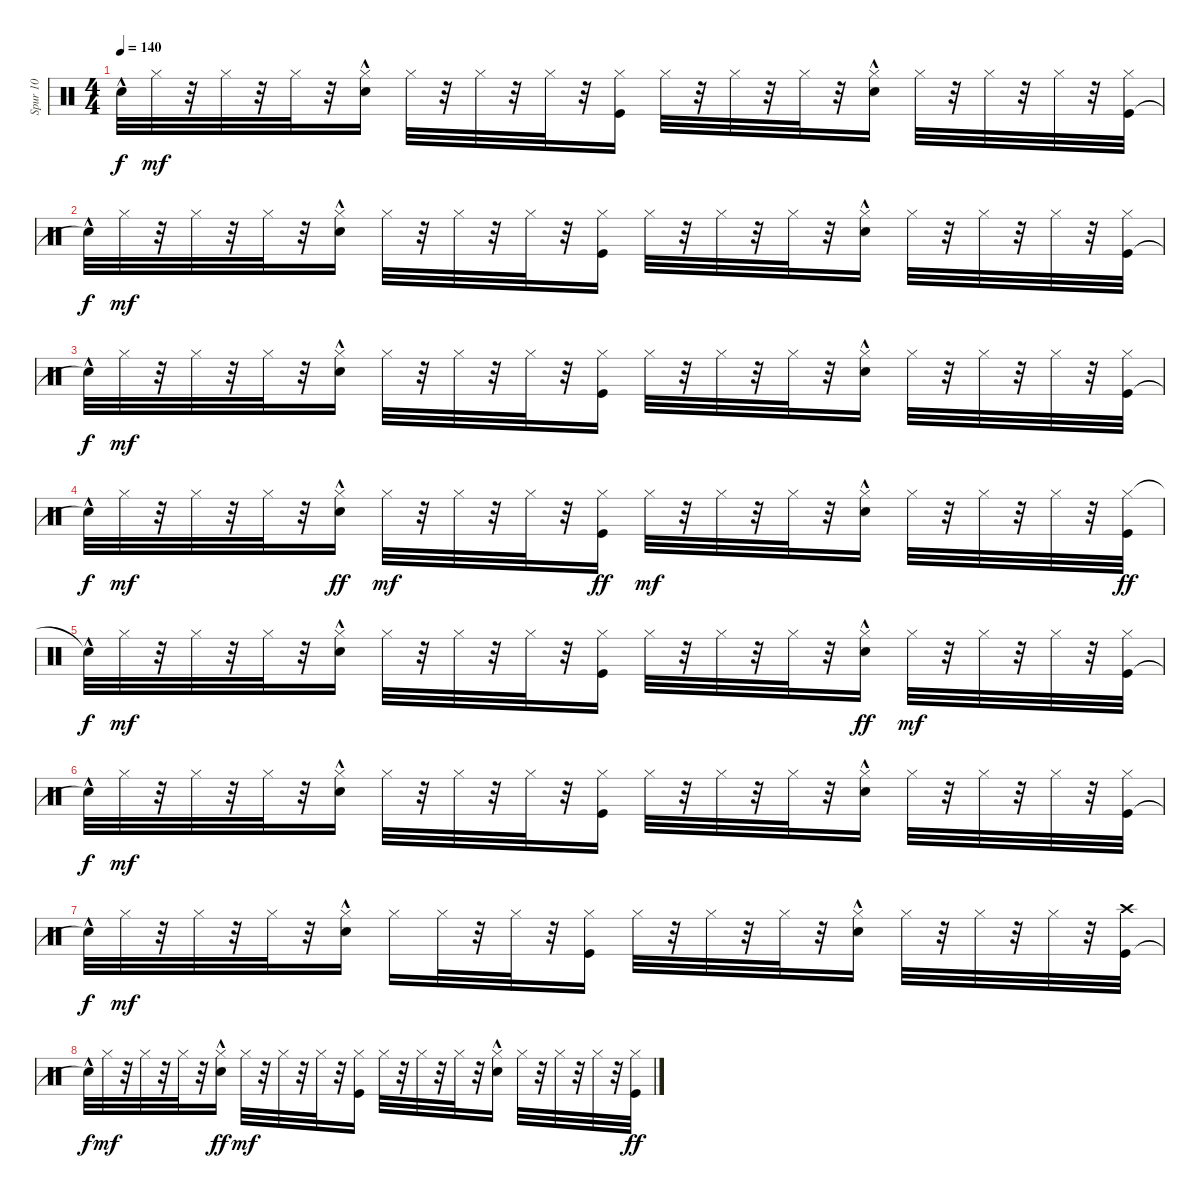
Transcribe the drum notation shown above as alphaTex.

\track ("Spur 10" "Spur 10") {instrument percussion}
\staff {score}
\articulation defaults
\ts (4 4)
\tempo 140
\clef neutral
\ks c "Snare (hit)"{hac t}.32{dy f} "Hi-Hat (closed)".32{dy mf}
r.32 "Hi-Hat (closed)".32 r.32 "Hi-Hat (closed)".32 r.32 ("Snare (hit) 2"{hac} "Hi-Hat (closed)").16 "Hi-Hat (closed)".32 r.32 "Hi-Hat (closed)".32 r.32 "Hi-Hat (closed)".32 r.32 ("Kick (hit)" "Hi-Hat (closed)").16 "Hi-Hat (closed)".32 r.32 "Hi-Hat (closed)".32 r.32 "Hi-Hat (closed)".32 r.32 ("Snare (hit) 2"{hac} "Hi-Hat (closed)").16 "Hi-Hat (closed)".32 r.32 "Hi-Hat (closed)".32 r.32 "Hi-Hat (closed)".32 r.32 ("Kick (hit)" "Hi-Hat (closed)").32 |
"Snare (hit)"{hac t}.32{dy f} "Hi-Hat (closed)".32{dy mf} r.32 "Hi-Hat (closed)".32 r.32 "Hi-Hat (closed)".32 r.32 ("Snare (hit) 2"{hac} "Hi-Hat (closed)").16 "Hi-Hat (closed)".32 r.32 "Hi-Hat (closed)".32 r.32 "Hi-Hat (closed)".32 r.32 ("Kick (hit)" "Hi-Hat (closed)").16 "Hi-Hat (closed)".32 r.32 "Hi-Hat (closed)".32 r.32 "Hi-Hat (closed)".32 r.32 ("Snare (hit) 2"{hac} "Hi-Hat (closed)").16 "Hi-Hat (closed)".32 r.32 "Hi-Hat (closed)".32 r.32 "Hi-Hat (closed)".32 r.32 ("Kick (hit)" "Hi-Hat (closed)").32 |
"Snare (hit)"{hac t}.32{dy f} "Hi-Hat (closed)".32{dy mf} r.32 "Hi-Hat (closed)".32 r.32 "Hi-Hat (closed)".32 r.32 ("Snare (hit) 2"{hac} "Hi-Hat (closed)").16 "Hi-Hat (closed)".32 r.32 "Hi-Hat (closed)".32 r.32 "Hi-Hat (closed)".32 r.32 ("Kick (hit)" "Hi-Hat (closed)").16 "Hi-Hat (closed)".32 r.32 "Hi-Hat (closed)".32 r.32 "Hi-Hat (closed)".32 r.32 ("Snare (hit) 2"{hac} "Hi-Hat (closed)").16 "Hi-Hat (closed)".32 r.32 "Hi-Hat (closed)".32 r.32 "Hi-Hat (closed)".32 r.32 ("Kick (hit)" "Hi-Hat (closed)").32 |
"Snare (hit)"{hac t}.32{dy f} "Hi-Hat (closed)".32{dy mf} r.32 "Hi-Hat (closed)".32 r.32 "Hi-Hat (closed)".32 r.32 ("Hi-Hat (closed)" "Snare (hit) 2"{hac}).16{dy ff} "Hi-Hat (closed)".32{dy mf} r.32 "Hi-Hat (closed)".32 r.32 "Hi-Hat (closed)".32 r.32 ("Hi-Hat (closed)" "Kick (hit)").16{dy ff} "Hi-Hat (closed)".32{dy mf} r.32 "Hi-Hat (closed)".32 r.32 "Hi-Hat (closed)".32 r.32 ("Snare (hit) 2"{hac} "Hi-Hat (closed)").16 "Hi-Hat (closed)".32 r.32 "Hi-Hat (closed)".32 r.32 "Hi-Hat (closed)".32 r.32 ("Hi-Hat (closed)" "Kick (hit)").32{dy ff} |
"Snare (hit)"{hac t}.32{dy f} "Hi-Hat (closed)".32{dy mf} r.32 "Hi-Hat (closed)".32 r.32 "Hi-Hat (closed)".32 r.32 ("Snare (hit) 2"{hac} "Hi-Hat (closed)").16 "Hi-Hat (closed)".32 r.32 "Hi-Hat (closed)".32 r.32 "Hi-Hat (closed)".32 r.32 ("Kick (hit)" "Hi-Hat (closed)").16 "Hi-Hat (closed)".32 r.32 "Hi-Hat (closed)".32 r.32 "Hi-Hat (closed)".32 r.32 ("Hi-Hat (closed)" "Snare (hit) 2"{hac}).16{dy ff} "Hi-Hat (closed)".32{dy mf} r.32 "Hi-Hat (closed)".32 r.32 "Hi-Hat (closed)".32 r.32 ("Kick (hit)" "Hi-Hat (closed)").32 |
"Snare (hit)"{hac t}.32{dy f} "Hi-Hat (closed)".32{dy mf} r.32 "Hi-Hat (closed)".32 r.32 "Hi-Hat (closed)".32 r.32 ("Snare (hit) 2"{hac} "Hi-Hat (closed)").16 "Hi-Hat (closed)".32 r.32 "Hi-Hat (closed)".32 r.32 "Hi-Hat (closed)".32 r.32 ("Kick (hit)" "Hi-Hat (closed)").16 "Hi-Hat (closed)".32 r.32 "Hi-Hat (closed)".32 r.32 "Hi-Hat (closed)".32 r.32 ("Snare (hit) 2"{hac} "Hi-Hat (closed)").16 "Hi-Hat (closed)".32 r.32 "Hi-Hat (closed)".32 r.32 "Hi-Hat (closed)".32 r.32 ("Kick (hit)" "Hi-Hat (closed)").32 |
"Snare (hit)"{hac t}.32{dy f} "Hi-Hat (closed)".32{dy mf} r.32 "Hi-Hat (closed)".32 r.32 "Hi-Hat (closed)".32 r.32 ("Snare (hit) 2"{hac} "Hi-Hat (closed)").16 "Hi-Hat (closed)".16 "Hi-Hat (closed)".32 r.32 "Hi-Hat (closed)".32 r.32 ("Kick (hit)" "Hi-Hat (closed)").16 "Hi-Hat (closed)".32 r.32 "Hi-Hat (closed)".32 r.32 "Hi-Hat (closed)".32 r.32 ("Snare (hit) 2"{hac} "Hi-Hat (closed)").16 "Hi-Hat (closed)".32 r.32 "Hi-Hat (closed)".32 r.32 "Hi-Hat (closed)".32 r.32 ("Kick (hit)" "Crash high (hit)").32 |
"Snare (hit)"{hac t}.32{dy f} "Hi-Hat (closed)".32{dy mf} r.32 "Hi-Hat (closed)".32 r.32 "Hi-Hat (closed)".32 r.32 ("Hi-Hat (closed)" "Snare (hit) 2"{hac}).16{dy ff} "Hi-Hat (closed)".32{dy mf} r.32 "Hi-Hat (closed)".32 r.32 "Hi-Hat (closed)".32 r.32 ("Kick (hit)" "Hi-Hat (closed)").16 "Hi-Hat (closed)".32 r.32 "Hi-Hat (closed)".32 r.32 "Hi-Hat (closed)".32 r.32 ("Snare (hit) 2"{hac} "Hi-Hat (closed)").16 "Hi-Hat (closed)".32 r.32 "Hi-Hat (closed)".32 r.32 "Hi-Hat (closed)".32 r.32 ("Hi-Hat (closed)" "Kick (hit)").32{dy ff}
